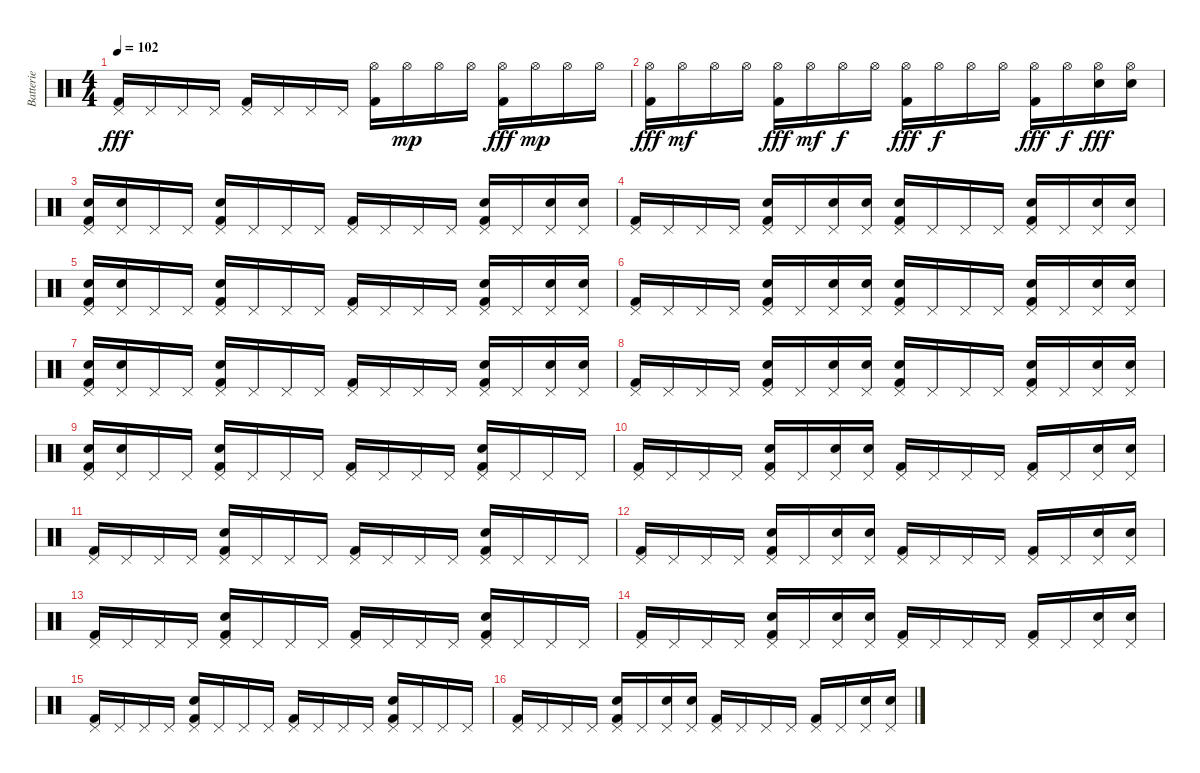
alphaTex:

\track ("Batterie" "Batterie") {instrument percussion}
\staff {score}
\articulation defaults
\ts (4 4)
\tempo 102
\clef neutral
\ks c
("Pedal Hi-Hat (hit)" "Kick (hit) 2").16{dy fff} "Pedal Hi-Hat (hit)".16 "Pedal Hi-Hat (hit)".16 "Pedal Hi-Hat (hit)".16 ("Pedal Hi-Hat (hit)" "Kick (hit) 2").16 "Pedal Hi-Hat (hit)".16 "Pedal Hi-Hat (hit)".16 "Pedal Hi-Hat (hit)".16 ("Hi-Hat (open)" "Kick (hit) 2").16 "Hi-Hat (open)".16{dy mp} "Hi-Hat (open)".16 "Hi-Hat (open)".16 ("Hi-Hat (open)" "Kick (hit) 2").16{dy fff} "Hi-Hat (open)".16{dy mp} "Hi-Hat (open)".16 "Hi-Hat (open)".16 |
("Hi-Hat (open)" "Kick (hit) 2").16{dy fff} "Hi-Hat (open)".16{dy mf} "Hi-Hat (open)".16 "Hi-Hat (open)".16 ("Hi-Hat (open)" "Kick (hit) 2").16{dy fff} "Hi-Hat (open)".16{dy mf} "Hi-Hat (open)".16{dy f} "Hi-Hat (open)".16 ("Hi-Hat (open)" "Kick (hit) 2").16{dy fff} "Hi-Hat (open)".16{dy f} "Hi-Hat (open)".16 "Hi-Hat (open)".16 ("Hi-Hat (open)" "Kick (hit) 2").16{dy fff} "Hi-Hat (open)".16{dy f} ("Hi-Hat (open)" "Electric Snare (hit)").16{dy fff} ("Hi-Hat (open)" "Electric Snare (hit)").16 |
("Pedal Hi-Hat (hit)" "Electric Snare (hit)" "Kick (hit) 2").16 ("Pedal Hi-Hat (hit)" "Electric Snare (hit)").16 "Pedal Hi-Hat (hit)".16 "Pedal Hi-Hat (hit)".16 ("Pedal Hi-Hat (hit)" "Electric Snare (hit)" "Kick (hit) 2").16 "Pedal Hi-Hat (hit)".16 "Pedal Hi-Hat (hit)".16 "Pedal Hi-Hat (hit)".16 ("Pedal Hi-Hat (hit)" "Kick (hit) 2").16 "Pedal Hi-Hat (hit)".16 "Pedal Hi-Hat (hit)".16 "Pedal Hi-Hat (hit)".16 ("Pedal Hi-Hat (hit)" "Electric Snare (hit)" "Kick (hit) 2").16 "Pedal Hi-Hat (hit)".16 ("Pedal Hi-Hat (hit)" "Electric Snare (hit)").16 ("Pedal Hi-Hat (hit)" "Electric Snare (hit)").16 |
("Pedal Hi-Hat (hit)" "Kick (hit) 2").16 "Pedal Hi-Hat (hit)".16 "Pedal Hi-Hat (hit)".16 "Pedal Hi-Hat (hit)".16 ("Pedal Hi-Hat (hit)" "Electric Snare (hit)" "Kick (hit) 2").16 "Pedal Hi-Hat (hit)".16 ("Pedal Hi-Hat (hit)" "Electric Snare (hit)").16 ("Pedal Hi-Hat (hit)" "Electric Snare (hit)").16 ("Pedal Hi-Hat (hit)" "Electric Snare (hit)" "Kick (hit) 2").16 "Pedal Hi-Hat (hit)".16 "Pedal Hi-Hat (hit)".16 "Pedal Hi-Hat (hit)".16 ("Pedal Hi-Hat (hit)" "Electric Snare (hit)" "Kick (hit) 2").16 "Pedal Hi-Hat (hit)".16 ("Pedal Hi-Hat (hit)" "Electric Snare (hit)").16 ("Pedal Hi-Hat (hit)" "Electric Snare (hit)").16 |
("Pedal Hi-Hat (hit)" "Electric Snare (hit)" "Kick (hit) 2").16 ("Pedal Hi-Hat (hit)" "Electric Snare (hit)").16 "Pedal Hi-Hat (hit)".16 "Pedal Hi-Hat (hit)".16 ("Pedal Hi-Hat (hit)" "Electric Snare (hit)" "Kick (hit) 2").16 "Pedal Hi-Hat (hit)".16 "Pedal Hi-Hat (hit)".16 "Pedal Hi-Hat (hit)".16 ("Pedal Hi-Hat (hit)" "Kick (hit) 2").16 "Pedal Hi-Hat (hit)".16 "Pedal Hi-Hat (hit)".16 "Pedal Hi-Hat (hit)".16 ("Pedal Hi-Hat (hit)" "Electric Snare (hit)" "Kick (hit) 2").16 "Pedal Hi-Hat (hit)".16 ("Pedal Hi-Hat (hit)" "Electric Snare (hit)").16 ("Pedal Hi-Hat (hit)" "Electric Snare (hit)").16 |
("Pedal Hi-Hat (hit)" "Kick (hit) 2").16 "Pedal Hi-Hat (hit)".16 "Pedal Hi-Hat (hit)".16 "Pedal Hi-Hat (hit)".16 ("Pedal Hi-Hat (hit)" "Electric Snare (hit)" "Kick (hit) 2").16 "Pedal Hi-Hat (hit)".16 ("Pedal Hi-Hat (hit)" "Electric Snare (hit)").16 ("Pedal Hi-Hat (hit)" "Electric Snare (hit)").16 ("Pedal Hi-Hat (hit)" "Electric Snare (hit)" "Kick (hit) 2").16 "Pedal Hi-Hat (hit)".16 "Pedal Hi-Hat (hit)".16 "Pedal Hi-Hat (hit)".16 ("Pedal Hi-Hat (hit)" "Electric Snare (hit)" "Kick (hit) 2").16 "Pedal Hi-Hat (hit)".16 ("Pedal Hi-Hat (hit)" "Electric Snare (hit)").16 ("Pedal Hi-Hat (hit)" "Electric Snare (hit)").16 |
("Pedal Hi-Hat (hit)" "Electric Snare (hit)" "Kick (hit) 2").16 ("Pedal Hi-Hat (hit)" "Electric Snare (hit)").16 "Pedal Hi-Hat (hit)".16 "Pedal Hi-Hat (hit)".16 ("Pedal Hi-Hat (hit)" "Electric Snare (hit)" "Kick (hit) 2").16 "Pedal Hi-Hat (hit)".16 "Pedal Hi-Hat (hit)".16 "Pedal Hi-Hat (hit)".16 ("Pedal Hi-Hat (hit)" "Kick (hit) 2").16 "Pedal Hi-Hat (hit)".16 "Pedal Hi-Hat (hit)".16 "Pedal Hi-Hat (hit)".16 ("Pedal Hi-Hat (hit)" "Electric Snare (hit)" "Kick (hit) 2").16 "Pedal Hi-Hat (hit)".16 ("Pedal Hi-Hat (hit)" "Electric Snare (hit)").16 ("Pedal Hi-Hat (hit)" "Electric Snare (hit)").16 |
("Pedal Hi-Hat (hit)" "Kick (hit) 2").16 "Pedal Hi-Hat (hit)".16 "Pedal Hi-Hat (hit)".16 "Pedal Hi-Hat (hit)".16 ("Pedal Hi-Hat (hit)" "Electric Snare (hit)" "Kick (hit) 2").16 "Pedal Hi-Hat (hit)".16 ("Pedal Hi-Hat (hit)" "Electric Snare (hit)").16 ("Pedal Hi-Hat (hit)" "Electric Snare (hit)").16 ("Pedal Hi-Hat (hit)" "Electric Snare (hit)" "Kick (hit) 2").16 "Pedal Hi-Hat (hit)".16 "Pedal Hi-Hat (hit)".16 "Pedal Hi-Hat (hit)".16 ("Pedal Hi-Hat (hit)" "Electric Snare (hit)" "Kick (hit) 2").16 "Pedal Hi-Hat (hit)".16 ("Pedal Hi-Hat (hit)" "Electric Snare (hit)").16 ("Pedal Hi-Hat (hit)" "Electric Snare (hit)").16 |
("Pedal Hi-Hat (hit)" "Electric Snare (hit)" "Kick (hit) 2").16 ("Pedal Hi-Hat (hit)" "Electric Snare (hit)").16 "Pedal Hi-Hat (hit)".16 "Pedal Hi-Hat (hit)".16 ("Pedal Hi-Hat (hit)" "Electric Snare (hit)" "Kick (hit) 2").16 "Pedal Hi-Hat (hit)".16 "Pedal Hi-Hat (hit)".16 "Pedal Hi-Hat (hit)".16 ("Pedal Hi-Hat (hit)" "Kick (hit) 2").16 "Pedal Hi-Hat (hit)".16 "Pedal Hi-Hat (hit)".16 "Pedal Hi-Hat (hit)".16 ("Pedal Hi-Hat (hit)" "Electric Snare (hit)" "Kick (hit) 2").16 "Pedal Hi-Hat (hit)".16 "Pedal Hi-Hat (hit)".16 "Pedal Hi-Hat (hit)".16 |
("Pedal Hi-Hat (hit)" "Kick (hit) 2").16 "Pedal Hi-Hat (hit)".16 "Pedal Hi-Hat (hit)".16 "Pedal Hi-Hat (hit)".16 ("Pedal Hi-Hat (hit)" "Electric Snare (hit)" "Kick (hit) 2").16 "Pedal Hi-Hat (hit)".16 ("Pedal Hi-Hat (hit)" "Electric Snare (hit)").16 ("Pedal Hi-Hat (hit)" "Electric Snare (hit)").16 ("Pedal Hi-Hat (hit)" "Kick (hit) 2").16 "Pedal Hi-Hat (hit)".16 "Pedal Hi-Hat (hit)".16 "Pedal Hi-Hat (hit)".16 ("Pedal Hi-Hat (hit)" "Kick (hit) 2").16 "Pedal Hi-Hat (hit)".16 ("Pedal Hi-Hat (hit)" "Electric Snare (hit)").16 ("Pedal Hi-Hat (hit)" "Electric Snare (hit)").16 |
("Pedal Hi-Hat (hit)" "Kick (hit) 2").16 "Pedal Hi-Hat (hit)".16 "Pedal Hi-Hat (hit)".16 "Pedal Hi-Hat (hit)".16 ("Pedal Hi-Hat (hit)" "Electric Snare (hit)" "Kick (hit) 2").16 "Pedal Hi-Hat (hit)".16 "Pedal Hi-Hat (hit)".16 "Pedal Hi-Hat (hit)".16 ("Pedal Hi-Hat (hit)" "Kick (hit) 2").16 "Pedal Hi-Hat (hit)".16 "Pedal Hi-Hat (hit)".16 "Pedal Hi-Hat (hit)".16 ("Pedal Hi-Hat (hit)" "Electric Snare (hit)" "Kick (hit) 2").16 "Pedal Hi-Hat (hit)".16 "Pedal Hi-Hat (hit)".16 "Pedal Hi-Hat (hit)".16 |
("Pedal Hi-Hat (hit)" "Kick (hit) 2").16 "Pedal Hi-Hat (hit)".16 "Pedal Hi-Hat (hit)".16 "Pedal Hi-Hat (hit)".16 ("Pedal Hi-Hat (hit)" "Electric Snare (hit)" "Kick (hit) 2").16 "Pedal Hi-Hat (hit)".16 ("Pedal Hi-Hat (hit)" "Electric Snare (hit)").16 ("Pedal Hi-Hat (hit)" "Electric Snare (hit)").16 ("Pedal Hi-Hat (hit)" "Kick (hit) 2").16 "Pedal Hi-Hat (hit)".16 "Pedal Hi-Hat (hit)".16 "Pedal Hi-Hat (hit)".16 ("Pedal Hi-Hat (hit)" "Kick (hit) 2").16 "Pedal Hi-Hat (hit)".16 ("Pedal Hi-Hat (hit)" "Electric Snare (hit)").16 ("Pedal Hi-Hat (hit)" "Electric Snare (hit)").16 |
("Pedal Hi-Hat (hit)" "Kick (hit) 2").16 "Pedal Hi-Hat (hit)".16 "Pedal Hi-Hat (hit)".16 "Pedal Hi-Hat (hit)".16 ("Pedal Hi-Hat (hit)" "Electric Snare (hit)" "Kick (hit) 2").16 "Pedal Hi-Hat (hit)".16 "Pedal Hi-Hat (hit)".16 "Pedal Hi-Hat (hit)".16 ("Pedal Hi-Hat (hit)" "Kick (hit) 2").16 "Pedal Hi-Hat (hit)".16 "Pedal Hi-Hat (hit)".16 "Pedal Hi-Hat (hit)".16 ("Pedal Hi-Hat (hit)" "Electric Snare (hit)" "Kick (hit) 2").16 "Pedal Hi-Hat (hit)".16 "Pedal Hi-Hat (hit)".16 "Pedal Hi-Hat (hit)".16 |
("Pedal Hi-Hat (hit)" "Kick (hit) 2").16 "Pedal Hi-Hat (hit)".16 "Pedal Hi-Hat (hit)".16 "Pedal Hi-Hat (hit)".16 ("Pedal Hi-Hat (hit)" "Electric Snare (hit)" "Kick (hit) 2").16 "Pedal Hi-Hat (hit)".16 ("Pedal Hi-Hat (hit)" "Electric Snare (hit)").16 ("Pedal Hi-Hat (hit)" "Electric Snare (hit)").16 ("Pedal Hi-Hat (hit)" "Kick (hit) 2").16 "Pedal Hi-Hat (hit)".16 "Pedal Hi-Hat (hit)".16 "Pedal Hi-Hat (hit)".16 ("Pedal Hi-Hat (hit)" "Kick (hit) 2").16 "Pedal Hi-Hat (hit)".16 ("Pedal Hi-Hat (hit)" "Electric Snare (hit)").16 ("Pedal Hi-Hat (hit)" "Electric Snare (hit)").16 |
("Pedal Hi-Hat (hit)" "Kick (hit) 2").16 "Pedal Hi-Hat (hit)".16 "Pedal Hi-Hat (hit)".16 "Pedal Hi-Hat (hit)".16 ("Pedal Hi-Hat (hit)" "Electric Snare (hit)" "Kick (hit) 2").16 "Pedal Hi-Hat (hit)".16 "Pedal Hi-Hat (hit)".16 "Pedal Hi-Hat (hit)".16 ("Pedal Hi-Hat (hit)" "Kick (hit) 2").16 "Pedal Hi-Hat (hit)".16 "Pedal Hi-Hat (hit)".16 "Pedal Hi-Hat (hit)".16 ("Pedal Hi-Hat (hit)" "Electric Snare (hit)" "Kick (hit) 2").16 "Pedal Hi-Hat (hit)".16 "Pedal Hi-Hat (hit)".16 "Pedal Hi-Hat (hit)".16 |
("Pedal Hi-Hat (hit)" "Kick (hit) 2").16 "Pedal Hi-Hat (hit)".16 "Pedal Hi-Hat (hit)".16 "Pedal Hi-Hat (hit)".16 ("Pedal Hi-Hat (hit)" "Electric Snare (hit)" "Kick (hit) 2").16 "Pedal Hi-Hat (hit)".16 ("Pedal Hi-Hat (hit)" "Electric Snare (hit)").16 ("Pedal Hi-Hat (hit)" "Electric Snare (hit)").16 ("Pedal Hi-Hat (hit)" "Kick (hit) 2").16 "Pedal Hi-Hat (hit)".16 "Pedal Hi-Hat (hit)".16 "Pedal Hi-Hat (hit)".16 ("Pedal Hi-Hat (hit)" "Kick (hit) 2").16 "Pedal Hi-Hat (hit)".16 ("Pedal Hi-Hat (hit)" "Electric Snare (hit)").16 ("Pedal Hi-Hat (hit)" "Electric Snare (hit)").16
